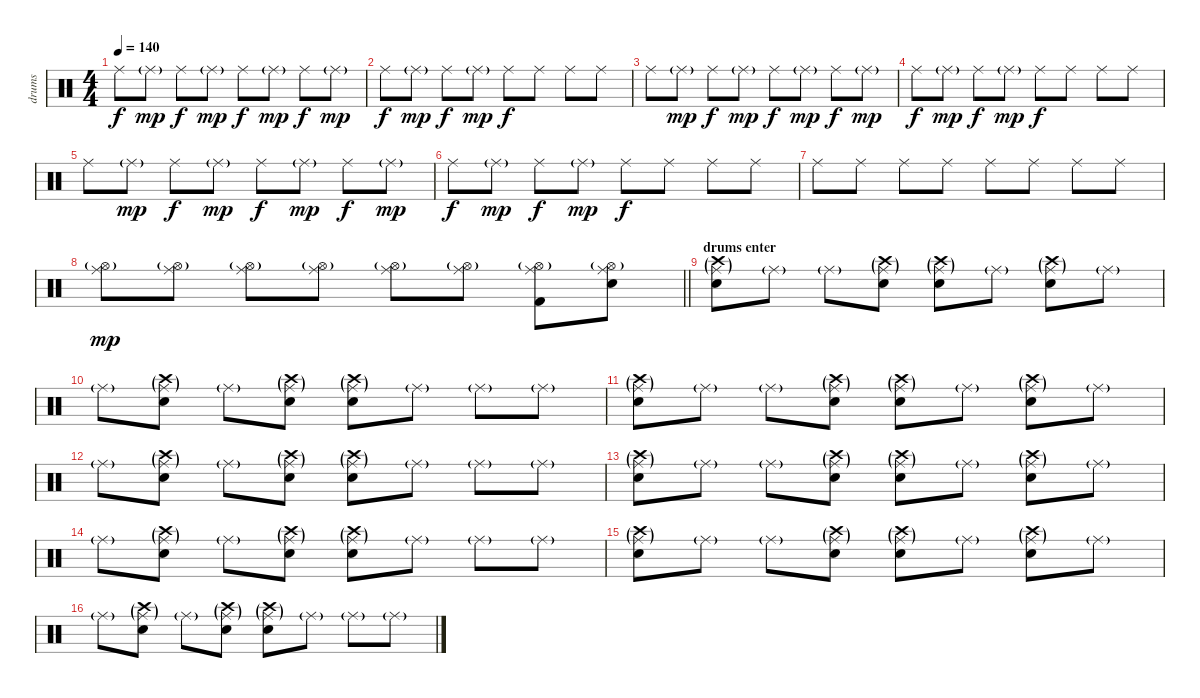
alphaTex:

\track ("drums" "drums") {instrument percussion}
\staff {score}
\articulation defaults
\ts (4 4)
\tempo 140
\clef neutral
\ks c "Ride (middle)".8{dy f volume 9} "Ride (middle)"{g}.8{dy mp} "Ride (middle)".8{dy f} "Ride (middle)"{g}.8{dy mp} "Ride (middle)".8{dy f} "Ride (middle)"{g}.8{dy mp} "Ride (middle)".8{dy f} "Ride (middle)"{g}.8{dy mp}
|
"Ride (middle)".8{dy f} "Ride (middle)"{g}.8{dy mp} "Ride (middle)".8{dy f} "Ride (middle)"{g}.8{dy mp} "Ride (middle)".8{dy f} "Ride (middle)".8 "Ride (middle)".8 "Ride (middle)".8 |
"Ride (middle)".8 "Ride (middle)"{g}.8{dy mp} "Ride (middle)".8{dy f} "Ride (middle)"{g}.8{dy mp} "Ride (middle)".8{dy f} "Ride (middle)"{g}.8{dy mp} "Ride (middle)".8{dy f} "Ride (middle)"{g}.8{dy mp} |
"Ride (middle)".8{dy f} "Ride (middle)"{g}.8{dy mp} "Ride (middle)".8{dy f} "Ride (middle)"{g}.8{dy mp} "Ride (middle)".8{dy f} "Ride (middle)".8 "Ride (middle)".8 "Ride (middle)".8 |
"Ride (middle)".8{volume 12} "Ride (middle)"{g}.8{dy mp} "Ride (middle)".8{dy f} "Ride (middle)"{g}.8{dy mp} "Ride (middle)".8{dy f} "Ride (middle)"{g}.8{dy mp} "Ride (middle)".8{dy f} "Ride (middle)"{g}.8{dy mp} |
"Ride (middle)".8{dy f} "Ride (middle)"{g}.8{dy mp} "Ride (middle)".8{dy f} "Ride (middle)"{g}.8{dy mp} "Ride (middle)".8{dy f} "Ride (middle)".8 "Ride (middle)".8 "Ride (middle)".8 |
"Ride (middle)".8 "Ride (middle)".8 "Ride (middle)".8 "Ride (middle)".8 "Ride (middle)".8 "Ride (middle)".8 "Ride (middle)".8 "Ride (middle)".8 |
\barLineRight lightlight
("Ride (middle)" "Hi-Hat (open)"{g}).8{dy mp} ("Ride (middle)" "Hi-Hat (open)"{g}).8 ("Ride (middle)" "Hi-Hat (open)"{g}).8 ("Ride (middle)" "Hi-Hat (open)"{g}).8 ("Ride (middle)" "Hi-Hat (open)"{g}).8 ("Ride (middle)" "Hi-Hat (open)"{g}).8 ("Kick (hit) 2" "Ride (middle)" "Hi-Hat (open)"{g}).8 ("Electric Snare (hit)" "Ride (middle)" "Hi-Hat (open)"{g}).8 |
\section ("" "drums enter")
("Electric Snare (hit)" "Ride (middle)"{g} "Crash high (hit)"{g}).8 "Ride (middle)"{g}.8 "Ride (middle)"{g}.8 ("Electric Snare (hit)" "Ride (middle)"{g} "Crash high (hit)"{g}).8 ("Electric Snare (hit)" "Ride (middle)"{g} "Crash high (hit)"{g}).8 "Ride (middle)"{g}.8 ("Electric Snare (hit)" "Ride (middle)"{g} "Crash high (hit)"{g}).8 "Ride (middle)"{g}.8 |
"Ride (middle)"{g}.8 ("Electric Snare (hit)" "Ride (middle)"{g} "Crash high (hit)"{g}).8 "Ride (middle)"{g}.8 ("Electric Snare (hit)" "Ride (middle)"{g} "Crash high (hit)"{g}).8 ("Electric Snare (hit)" "Ride (middle)"{g} "Crash high (hit)"{g}).8 "Ride (middle)"{g}.8 "Ride (middle)"{g}.8 "Ride (middle)"{g}.8 |
("Electric Snare (hit)" "Ride (middle)"{g} "Crash high (hit)"{g}).8 "Ride (middle)"{g}.8 "Ride (middle)"{g}.8 ("Electric Snare (hit)" "Ride (middle)"{g} "Crash high (hit)"{g}).8 ("Electric Snare (hit)" "Ride (middle)"{g} "Crash high (hit)"{g}).8 "Ride (middle)"{g}.8 ("Electric Snare (hit)" "Ride (middle)"{g} "Crash high (hit)"{g}).8 "Ride (middle)"{g}.8 |
"Ride (middle)"{g}.8 ("Electric Snare (hit)" "Ride (middle)"{g} "Crash high (hit)"{g}).8 "Ride (middle)"{g}.8 ("Electric Snare (hit)" "Ride (middle)"{g} "Crash high (hit)"{g}).8 ("Electric Snare (hit)" "Ride (middle)"{g} "Crash high (hit)"{g}).8 "Ride (middle)"{g}.8 "Ride (middle)"{g}.8 "Ride (middle)"{g}.8 |
("Electric Snare (hit)" "Ride (middle)"{g} "Crash high (hit)"{g}).8 "Ride (middle)"{g}.8 "Ride (middle)"{g}.8 ("Electric Snare (hit)" "Ride (middle)"{g} "Crash high (hit)"{g}).8 ("Electric Snare (hit)" "Ride (middle)"{g} "Crash high (hit)"{g}).8 "Ride (middle)"{g}.8 ("Electric Snare (hit)" "Ride (middle)"{g} "Crash high (hit)"{g}).8 "Ride (middle)"{g}.8 |
"Ride (middle)"{g}.8 ("Electric Snare (hit)" "Ride (middle)"{g} "Crash high (hit)"{g}).8 "Ride (middle)"{g}.8 ("Electric Snare (hit)" "Ride (middle)"{g} "Crash high (hit)"{g}).8 ("Electric Snare (hit)" "Ride (middle)"{g} "Crash high (hit)"{g}).8 "Ride (middle)"{g}.8 "Ride (middle)"{g}.8 "Ride (middle)"{g}.8 |
("Electric Snare (hit)" "Ride (middle)"{g} "Crash high (hit)"{g}).8 "Ride (middle)"{g}.8 "Ride (middle)"{g}.8 ("Electric Snare (hit)" "Ride (middle)"{g} "Crash high (hit)"{g}).8 ("Electric Snare (hit)" "Ride (middle)"{g} "Crash high (hit)"{g}).8 "Ride (middle)"{g}.8 ("Electric Snare (hit)" "Ride (middle)"{g} "Crash high (hit)"{g}).8 "Ride (middle)"{g}.8 |
"Ride (middle)"{g}.8 ("Electric Snare (hit)" "Ride (middle)"{g} "Crash high (hit)"{g}).8 "Ride (middle)"{g}.8 ("Electric Snare (hit)" "Ride (middle)"{g} "Crash high (hit)"{g}).8 ("Electric Snare (hit)" "Ride (middle)"{g} "Crash high (hit)"{g}).8 "Ride (middle)"{g}.8 "Ride (middle)"{g}.8 "Ride (middle)"{g}.8
